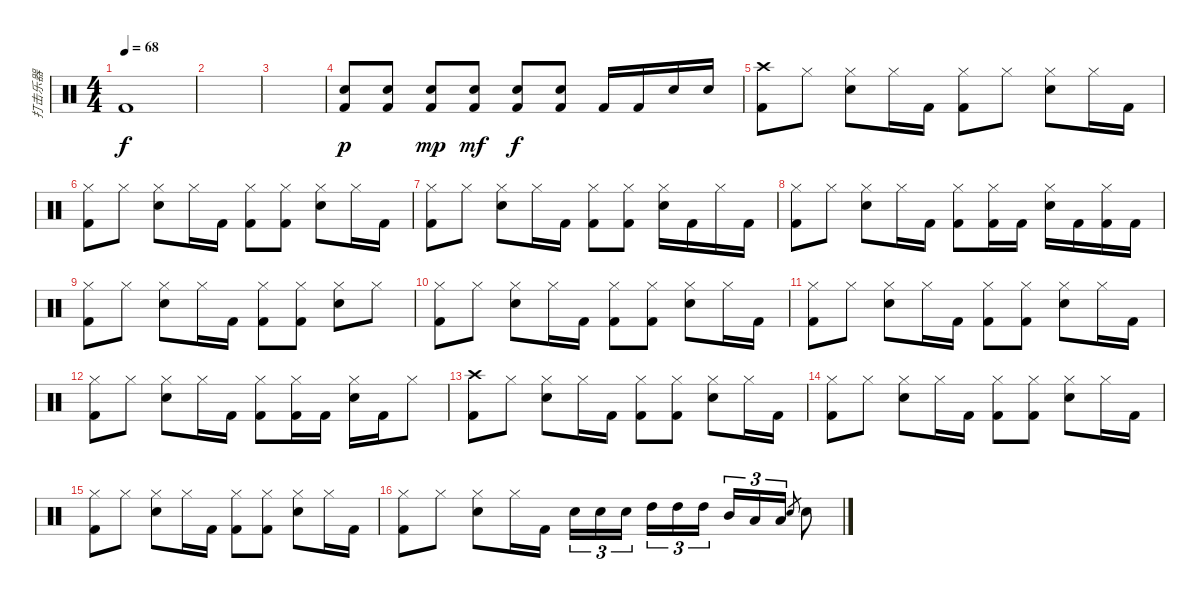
\track ("打击乐器" "打击乐器") {instrument percussion}
\staff {score}
\articulation defaults
\ts (4 4)
\tempo 68
\clef neutral
\ks c "Kick (hit) 2".1{dy f}
|
|
|
("Electric Snare (hit)" "Kick (hit) 2").8{dy p} ("Electric Snare (hit)" "Kick (hit) 2").8 ("Electric Snare (hit)" "Kick (hit) 2").8{dy mp} ("Electric Snare (hit)" "Kick (hit) 2").8{dy mf} ("Electric Snare (hit)" "Kick (hit) 2").8{dy f} ("Electric Snare (hit)" "Kick (hit) 2").8 "Kick (hit) 2".16 "Kick (hit) 2".16 "Electric Snare (hit)".16 "Electric Snare (hit)".16 |
("Crash high (hit)" "Kick (hit) 2").8 "Hi-Hat (closed)".8 ("Hi-Hat (closed)" "Electric Snare (hit)").8 "Hi-Hat (closed)".16 "Kick (hit) 2".16 ("Hi-Hat (closed)" "Kick (hit) 2").8 "Hi-Hat (closed)".8 ("Hi-Hat (closed)" "Electric Snare (hit)").8 "Hi-Hat (closed)".16 "Kick (hit) 2".16 |
("Hi-Hat (closed)" "Kick (hit) 2").8 "Hi-Hat (closed)".8 ("Hi-Hat (closed)" "Electric Snare (hit)").8 "Hi-Hat (closed)".16 "Kick (hit) 2".16 ("Hi-Hat (closed)" "Kick (hit) 2").8 ("Hi-Hat (closed)" "Kick (hit) 2").8 ("Hi-Hat (closed)" "Electric Snare (hit)").8 "Hi-Hat (closed)".16 "Kick (hit) 2".16 |
("Hi-Hat (closed)" "Kick (hit) 2").8 "Hi-Hat (closed)".8 ("Hi-Hat (closed)" "Electric Snare (hit)").8 "Hi-Hat (closed)".16 "Kick (hit) 2".16 ("Hi-Hat (closed)" "Kick (hit) 2").8 ("Hi-Hat (closed)" "Kick (hit) 2").8 ("Hi-Hat (closed)" "Electric Snare (hit)").16 "Kick (hit) 2".16 "Hi-Hat (closed)".16 "Kick (hit) 2".16 |
("Hi-Hat (closed)" "Kick (hit) 2").8 "Hi-Hat (closed)".8 ("Hi-Hat (closed)" "Electric Snare (hit)").8 "Hi-Hat (closed)".16 "Kick (hit) 2".16 ("Hi-Hat (closed)" "Kick (hit) 2").8 ("Hi-Hat (closed)" "Kick (hit) 2").16 "Kick (hit) 2".16 ("Hi-Hat (closed)" "Electric Snare (hit)").16 "Kick (hit) 2".16 ("Hi-Hat (closed)" "Kick (hit) 2").16 "Kick (hit) 2".16 |
("Hi-Hat (closed)" "Kick (hit) 2").8 "Hi-Hat (closed)".8 ("Hi-Hat (closed)" "Electric Snare (hit)").8 "Hi-Hat (closed)".16 "Kick (hit) 2".16 ("Hi-Hat (closed)" "Kick (hit) 2").8 ("Hi-Hat (closed)" "Kick (hit) 2").8 ("Hi-Hat (closed)" "Electric Snare (hit)").8 "Hi-Hat (closed)".8 |
("Hi-Hat (closed)" "Kick (hit) 2").8 "Hi-Hat (closed)".8 ("Hi-Hat (closed)" "Electric Snare (hit)").8 "Hi-Hat (closed)".16 "Kick (hit) 2".16 ("Hi-Hat (closed)" "Kick (hit) 2").8 ("Hi-Hat (closed)" "Kick (hit) 2").8 ("Hi-Hat (closed)" "Electric Snare (hit)").8 "Hi-Hat (closed)".16 "Kick (hit) 2".16 |
("Hi-Hat (closed)" "Kick (hit) 2").8 "Hi-Hat (closed)".8 ("Hi-Hat (closed)" "Electric Snare (hit)").8 "Hi-Hat (closed)".16 "Kick (hit) 2".16 ("Hi-Hat (closed)" "Kick (hit) 2").8 ("Hi-Hat (closed)" "Kick (hit) 2").8 ("Hi-Hat (closed)" "Electric Snare (hit)").8 "Hi-Hat (closed)".16 "Kick (hit) 2".16 |
("Hi-Hat (closed)" "Kick (hit) 2").8 "Hi-Hat (closed)".8 ("Hi-Hat (closed)" "Electric Snare (hit)").8 "Hi-Hat (closed)".16 "Kick (hit) 2".16 ("Hi-Hat (closed)" "Kick (hit) 2").8 ("Hi-Hat (closed)" "Kick (hit) 2").16 "Kick (hit) 2".16 ("Hi-Hat (closed)" "Electric Snare (hit)").16 "Kick (hit) 2".16 "Hi-Hat (closed)".8 |
("Crash high (hit)" "Kick (hit) 2").8 "Hi-Hat (closed)".8 ("Hi-Hat (closed)" "Electric Snare (hit)").8 "Hi-Hat (closed)".16 "Kick (hit) 2".16 ("Hi-Hat (closed)" "Kick (hit) 2").8 ("Hi-Hat (closed)" "Kick (hit) 2").8 ("Hi-Hat (closed)" "Electric Snare (hit)").8 "Hi-Hat (closed)".16 "Kick (hit) 2".16 |
("Hi-Hat (closed)" "Kick (hit) 2").8 "Hi-Hat (closed)".8 ("Hi-Hat (closed)" "Electric Snare (hit)").8 "Hi-Hat (closed)".16 "Kick (hit) 2".16 ("Hi-Hat (closed)" "Kick (hit) 2").8 ("Hi-Hat (closed)" "Kick (hit) 2").8 ("Hi-Hat (closed)" "Electric Snare (hit)").8 "Hi-Hat (closed)".16 "Kick (hit) 2".16 |
("Hi-Hat (closed)" "Kick (hit) 2").8 "Hi-Hat (closed)".8 ("Hi-Hat (closed)" "Electric Snare (hit)").8 "Hi-Hat (closed)".16 "Kick (hit) 2".16 ("Hi-Hat (closed)" "Kick (hit) 2").8 ("Hi-Hat (closed)" "Kick (hit) 2").8 ("Hi-Hat (closed)" "Electric Snare (hit)").8 "Hi-Hat (closed)".16 "Kick (hit) 2".16 |
("Hi-Hat (closed)" "Kick (hit) 2").8 "Hi-Hat (closed)".8 ("Hi-Hat (closed)" "Electric Snare (hit)").8 "Hi-Hat (closed)".16 "Kick (hit) 2".16 "Electric Snare (hit)".16{tu (3 2)} "Electric Snare (hit)".16{tu (3 2)} "Electric Snare (hit)".16{tu (3 2)} "High Tom (hit)".16{tu (3 2)} "High Tom (hit)".16{tu (3 2)} "High Tom (hit)".16{tu (3 2)} "Mid Tom (hit)".16{tu (3 2)} "Low Tom (hit)".16{tu (3 2)} "Low Tom (hit)".16{tu (3 2)} "Electric Snare (hit)".8{gr} "Electric Snare (hit)".8
